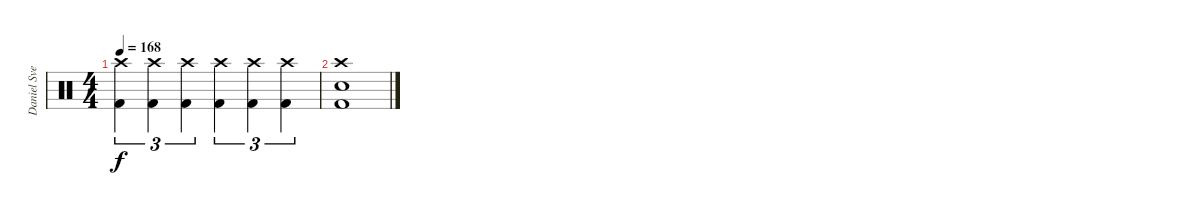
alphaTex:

\track ("Daniel Svensson" "Daniel Sve") {instrument percussion}
\staff {score}
\articulation defaults
\ts (4 4)
\tempo 168
\clef neutral
\ks c
("Crash high (hit)" "Kick (hit) 2").4{tu (3 2) dy f} ("Crash high (hit)" "Kick (hit) 2").4{tu (3 2)} ("Crash high (hit)" "Kick (hit) 2").4{tu (3 2)} ("Crash high (hit)" "Kick (hit) 2").4{tu (3 2)} ("Crash high (hit)" "Kick (hit) 2").4{tu (3 2)} ("Crash high (hit)" "Kick (hit) 2").4{tu (3 2)} |
("Crash high (hit)" "Electric Snare (hit)" "Kick (hit) 2").1
